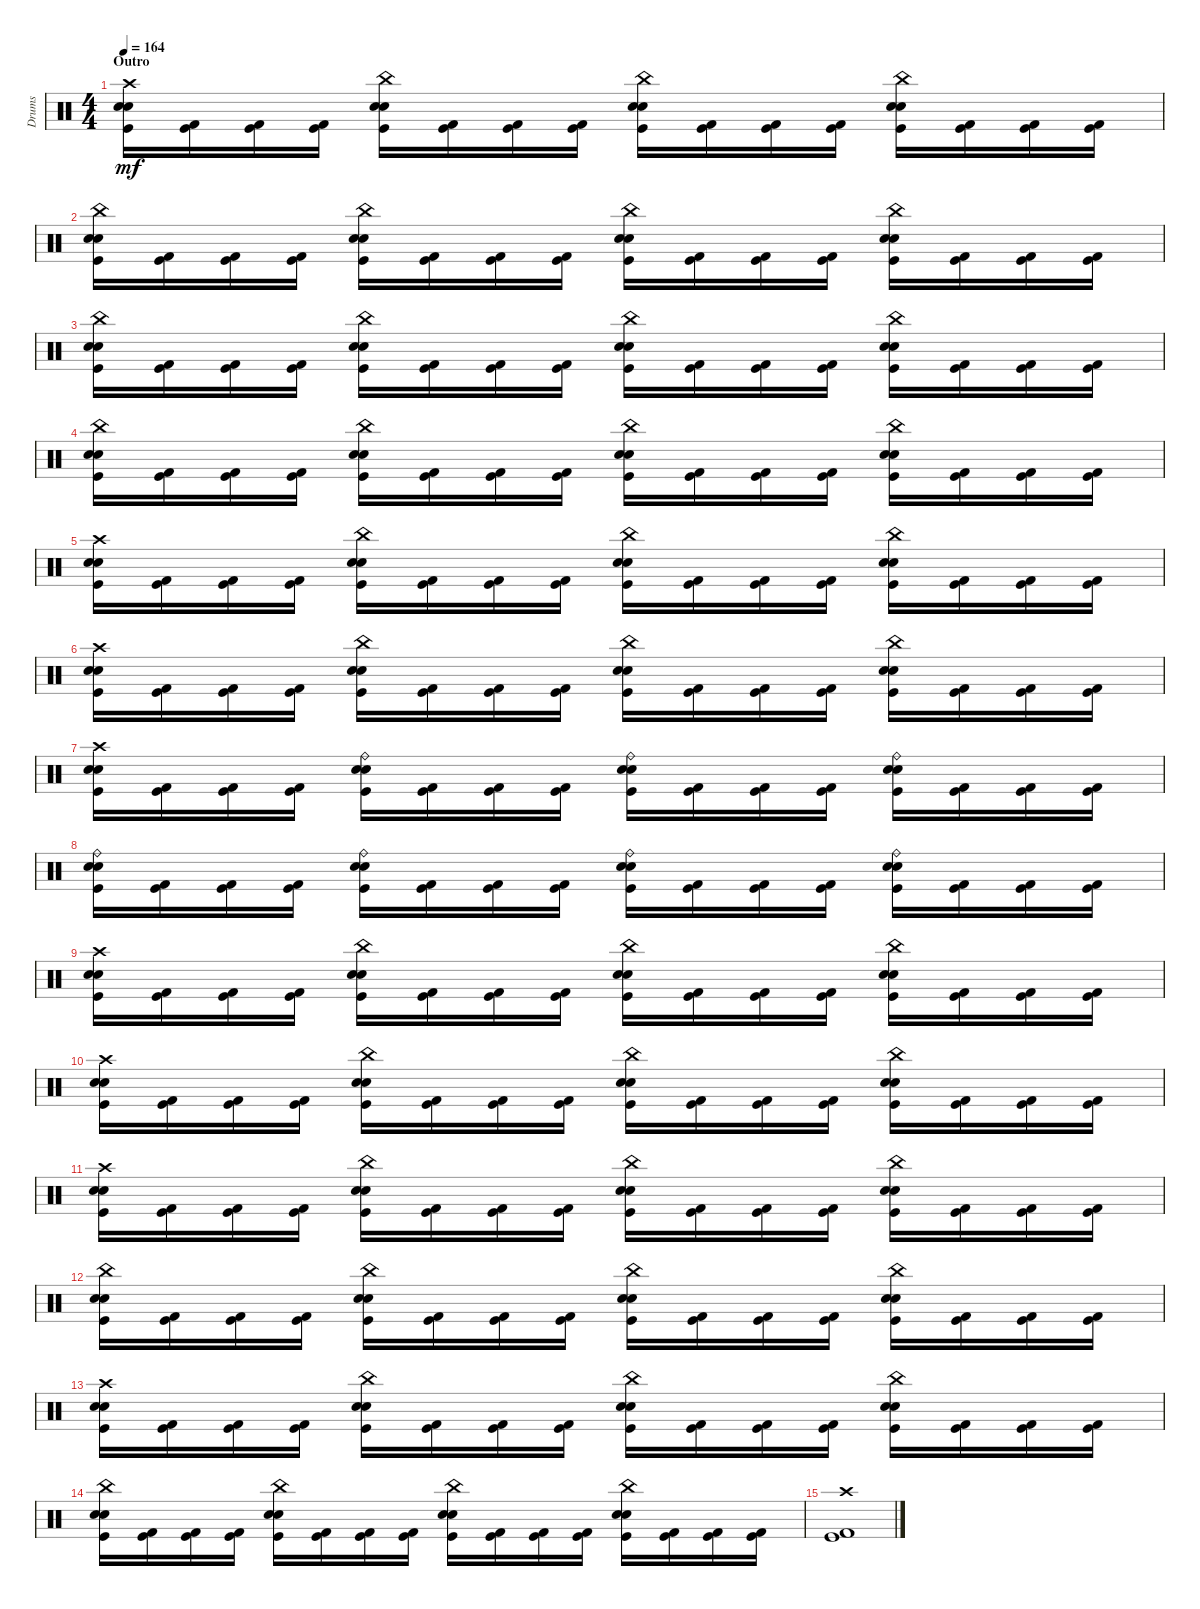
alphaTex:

\track ("Drums" "Drums") {instrument percussion}
\staff {score}
\articulation defaults
\ts (4 4)
\section ("" "Outro")
\tempo 164
\clef neutral
\ks c
("Crash high (hit)" "Snare (hit) 2" "Electric Snare (hit)" "Kick (hit)").16{dy mf} ("Kick (hit) 2" "Kick (hit)").16 ("Kick (hit) 2" "Kick (hit)").16 ("Kick (hit) 2" "Kick (hit)").16 ("China (hit)" "Snare (hit) 2" "Electric Snare (hit)" "Kick (hit)").16 ("Kick (hit) 2" "Kick (hit)").16 ("Kick (hit) 2" "Kick (hit)").16 ("Kick (hit) 2" "Kick (hit)").16 ("China (hit)" "Snare (hit) 2" "Electric Snare (hit)" "Kick (hit)").16 ("Kick (hit) 2" "Kick (hit)").16 ("Kick (hit) 2" "Kick (hit)").16 ("Kick (hit) 2" "Kick (hit)").16 ("China (hit)" "Snare (hit) 2" "Electric Snare (hit)" "Kick (hit)").16 ("Kick (hit) 2" "Kick (hit)").16 ("Kick (hit) 2" "Kick (hit)").16 ("Kick (hit) 2" "Kick (hit)").16 |
("China (hit)" "Snare (hit) 2" "Electric Snare (hit)" "Kick (hit)").16 ("Kick (hit) 2" "Kick (hit)").16 ("Kick (hit) 2" "Kick (hit)").16 ("Kick (hit) 2" "Kick (hit)").16 ("China (hit)" "Snare (hit) 2" "Electric Snare (hit)" "Kick (hit)").16 ("Kick (hit) 2" "Kick (hit)").16 ("Kick (hit) 2" "Kick (hit)").16 ("Kick (hit) 2" "Kick (hit)").16 ("China (hit)" "Snare (hit) 2" "Electric Snare (hit)" "Kick (hit)").16 ("Kick (hit) 2" "Kick (hit)").16 ("Kick (hit) 2" "Kick (hit)").16 ("Kick (hit) 2" "Kick (hit)").16 ("China (hit)" "Snare (hit) 2" "Electric Snare (hit)" "Kick (hit)").16 ("Kick (hit) 2" "Kick (hit)").16 ("Kick (hit) 2" "Kick (hit)").16 ("Kick (hit) 2" "Kick (hit)").16 |
("China (hit)" "Snare (hit) 2" "Electric Snare (hit)" "Kick (hit)").16 ("Kick (hit) 2" "Kick (hit)").16 ("Kick (hit) 2" "Kick (hit)").16 ("Kick (hit) 2" "Kick (hit)").16 ("China (hit)" "Snare (hit) 2" "Electric Snare (hit)" "Kick (hit)").16 ("Kick (hit) 2" "Kick (hit)").16 ("Kick (hit) 2" "Kick (hit)").16 ("Kick (hit) 2" "Kick (hit)").16 ("China (hit)" "Snare (hit) 2" "Electric Snare (hit)" "Kick (hit)").16 ("Kick (hit) 2" "Kick (hit)").16 ("Kick (hit) 2" "Kick (hit)").16 ("Kick (hit) 2" "Kick (hit)").16 ("China (hit)" "Snare (hit) 2" "Electric Snare (hit)" "Kick (hit)").16 ("Kick (hit) 2" "Kick (hit)").16 ("Kick (hit) 2" "Kick (hit)").16 ("Kick (hit) 2" "Kick (hit)").16 |
("China (hit)" "Snare (hit) 2" "Electric Snare (hit)" "Kick (hit)").16 ("Kick (hit) 2" "Kick (hit)").16 ("Kick (hit) 2" "Kick (hit)").16 ("Kick (hit) 2" "Kick (hit)").16 ("China (hit)" "Snare (hit) 2" "Electric Snare (hit)" "Kick (hit)").16 ("Kick (hit) 2" "Kick (hit)").16 ("Kick (hit) 2" "Kick (hit)").16 ("Kick (hit) 2" "Kick (hit)").16 ("China (hit)" "Snare (hit) 2" "Electric Snare (hit)" "Kick (hit)").16 ("Kick (hit) 2" "Kick (hit)").16 ("Kick (hit) 2" "Kick (hit)").16 ("Kick (hit) 2" "Kick (hit)").16 ("China (hit)" "Snare (hit) 2" "Electric Snare (hit)" "Kick (hit)").16 ("Kick (hit) 2" "Kick (hit)").16 ("Kick (hit) 2" "Kick (hit)").16 ("Kick (hit) 2" "Kick (hit)").16 |
("Crash high (hit)" "Snare (hit) 2" "Electric Snare (hit)" "Kick (hit)").16 ("Kick (hit) 2" "Kick (hit)").16 ("Kick (hit) 2" "Kick (hit)").16 ("Kick (hit) 2" "Kick (hit)").16 ("China (hit)" "Snare (hit) 2" "Electric Snare (hit)" "Kick (hit)").16 ("Kick (hit) 2" "Kick (hit)").16 ("Kick (hit) 2" "Kick (hit)").16 ("Kick (hit) 2" "Kick (hit)").16 ("China (hit)" "Snare (hit) 2" "Electric Snare (hit)" "Kick (hit)").16 ("Kick (hit) 2" "Kick (hit)").16 ("Kick (hit) 2" "Kick (hit)").16 ("Kick (hit) 2" "Kick (hit)").16 ("China (hit)" "Snare (hit) 2" "Electric Snare (hit)" "Kick (hit)").16 ("Kick (hit) 2" "Kick (hit)").16 ("Kick (hit) 2" "Kick (hit)").16 ("Kick (hit) 2" "Kick (hit)").16 |
("Crash high (hit)" "Snare (hit) 2" "Electric Snare (hit)" "Kick (hit)").16 ("Kick (hit) 2" "Kick (hit)").16 ("Kick (hit) 2" "Kick (hit)").16 ("Kick (hit) 2" "Kick (hit)").16 ("China (hit)" "Snare (hit) 2" "Electric Snare (hit)" "Kick (hit)").16 ("Kick (hit) 2" "Kick (hit)").16 ("Kick (hit) 2" "Kick (hit)").16 ("Kick (hit) 2" "Kick (hit)").16 ("China (hit)" "Snare (hit) 2" "Electric Snare (hit)" "Kick (hit)").16 ("Kick (hit) 2" "Kick (hit)").16 ("Kick (hit) 2" "Kick (hit)").16 ("Kick (hit) 2" "Kick (hit)").16 ("China (hit)" "Snare (hit) 2" "Electric Snare (hit)" "Kick (hit)").16 ("Kick (hit) 2" "Kick (hit)").16 ("Kick (hit) 2" "Kick (hit)").16 ("Kick (hit) 2" "Kick (hit)").16 |
("Crash high (hit)" "Snare (hit) 2" "Electric Snare (hit)" "Kick (hit)").16 ("Kick (hit) 2" "Kick (hit)").16 ("Kick (hit) 2" "Kick (hit)").16 ("Kick (hit) 2" "Kick (hit)").16 ("Ride (bell)" "Snare (hit) 2" "Electric Snare (hit)" "Kick (hit)").16 ("Kick (hit) 2" "Kick (hit)").16 ("Kick (hit) 2" "Kick (hit)").16 ("Kick (hit) 2" "Kick (hit)").16 ("Ride (bell)" "Snare (hit) 2" "Electric Snare (hit)" "Kick (hit)").16 ("Kick (hit) 2" "Kick (hit)").16 ("Kick (hit) 2" "Kick (hit)").16 ("Kick (hit) 2" "Kick (hit)").16 ("Ride (bell)" "Snare (hit) 2" "Electric Snare (hit)" "Kick (hit)").16 ("Kick (hit) 2" "Kick (hit)").16 ("Kick (hit) 2" "Kick (hit)").16 ("Kick (hit) 2" "Kick (hit)").16 |
("Ride (bell)" "Snare (hit) 2" "Electric Snare (hit)" "Kick (hit)").16 ("Kick (hit) 2" "Kick (hit)").16 ("Kick (hit) 2" "Kick (hit)").16 ("Kick (hit) 2" "Kick (hit)").16 ("Ride (bell)" "Snare (hit) 2" "Electric Snare (hit)" "Kick (hit)").16 ("Kick (hit) 2" "Kick (hit)").16 ("Kick (hit) 2" "Kick (hit)").16 ("Kick (hit) 2" "Kick (hit)").16 ("Ride (bell)" "Snare (hit) 2" "Electric Snare (hit)" "Kick (hit)").16 ("Kick (hit) 2" "Kick (hit)").16 ("Kick (hit) 2" "Kick (hit)").16 ("Kick (hit) 2" "Kick (hit)").16 ("Ride (bell)" "Snare (hit) 2" "Electric Snare (hit)" "Kick (hit)").16 ("Kick (hit) 2" "Kick (hit)").16 ("Kick (hit) 2" "Kick (hit)").16 ("Kick (hit) 2" "Kick (hit)").16 |
("Crash high (hit)" "Snare (hit) 2" "Electric Snare (hit)" "Kick (hit)").16 ("Kick (hit) 2" "Kick (hit)").16 ("Kick (hit) 2" "Kick (hit)").16 ("Kick (hit) 2" "Kick (hit)").16 ("China (hit)" "Snare (hit) 2" "Electric Snare (hit)" "Kick (hit)").16 ("Kick (hit) 2" "Kick (hit)").16 ("Kick (hit) 2" "Kick (hit)").16 ("Kick (hit) 2" "Kick (hit)").16 ("China (hit)" "Snare (hit) 2" "Electric Snare (hit)" "Kick (hit)").16 ("Kick (hit) 2" "Kick (hit)").16 ("Kick (hit) 2" "Kick (hit)").16 ("Kick (hit) 2" "Kick (hit)").16 ("China (hit)" "Snare (hit) 2" "Electric Snare (hit)" "Kick (hit)").16 ("Kick (hit) 2" "Kick (hit)").16 ("Kick (hit) 2" "Kick (hit)").16 ("Kick (hit) 2" "Kick (hit)").16 |
("Crash high (hit)" "Snare (hit) 2" "Electric Snare (hit)" "Kick (hit)").16 ("Kick (hit) 2" "Kick (hit)").16 ("Kick (hit) 2" "Kick (hit)").16 ("Kick (hit) 2" "Kick (hit)").16 ("China (hit)" "Snare (hit) 2" "Electric Snare (hit)" "Kick (hit)").16 ("Kick (hit) 2" "Kick (hit)").16 ("Kick (hit) 2" "Kick (hit)").16 ("Kick (hit) 2" "Kick (hit)").16 ("China (hit)" "Snare (hit) 2" "Electric Snare (hit)" "Kick (hit)").16 ("Kick (hit) 2" "Kick (hit)").16 ("Kick (hit) 2" "Kick (hit)").16 ("Kick (hit) 2" "Kick (hit)").16 ("China (hit)" "Snare (hit) 2" "Electric Snare (hit)" "Kick (hit)").16 ("Kick (hit) 2" "Kick (hit)").16 ("Kick (hit) 2" "Kick (hit)").16 ("Kick (hit) 2" "Kick (hit)").16 |
("Crash high (hit)" "Snare (hit) 2" "Electric Snare (hit)" "Kick (hit)").16 ("Kick (hit) 2" "Kick (hit)").16 ("Kick (hit) 2" "Kick (hit)").16 ("Kick (hit) 2" "Kick (hit)").16 ("China (hit)" "Snare (hit) 2" "Electric Snare (hit)" "Kick (hit)").16 ("Kick (hit) 2" "Kick (hit)").16 ("Kick (hit) 2" "Kick (hit)").16 ("Kick (hit) 2" "Kick (hit)").16 ("China (hit)" "Snare (hit) 2" "Electric Snare (hit)" "Kick (hit)").16 ("Kick (hit) 2" "Kick (hit)").16 ("Kick (hit) 2" "Kick (hit)").16 ("Kick (hit) 2" "Kick (hit)").16 ("China (hit)" "Snare (hit) 2" "Electric Snare (hit)" "Kick (hit)").16 ("Kick (hit) 2" "Kick (hit)").16 ("Kick (hit) 2" "Kick (hit)").16 ("Kick (hit) 2" "Kick (hit)").16 |
("China (hit)" "Snare (hit) 2" "Electric Snare (hit)" "Kick (hit)").16 ("Kick (hit) 2" "Kick (hit)").16 ("Kick (hit) 2" "Kick (hit)").16 ("Kick (hit) 2" "Kick (hit)").16 ("China (hit)" "Snare (hit) 2" "Electric Snare (hit)" "Kick (hit)").16 ("Kick (hit) 2" "Kick (hit)").16 ("Kick (hit) 2" "Kick (hit)").16 ("Kick (hit) 2" "Kick (hit)").16 ("China (hit)" "Snare (hit) 2" "Electric Snare (hit)" "Kick (hit)").16 ("Kick (hit) 2" "Kick (hit)").16 ("Kick (hit) 2" "Kick (hit)").16 ("Kick (hit) 2" "Kick (hit)").16 ("China (hit)" "Snare (hit) 2" "Electric Snare (hit)" "Kick (hit)").16 ("Kick (hit) 2" "Kick (hit)").16 ("Kick (hit) 2" "Kick (hit)").16 ("Kick (hit) 2" "Kick (hit)").16 |
("Crash high (hit)" "Snare (hit) 2" "Electric Snare (hit)" "Kick (hit)").16 ("Kick (hit) 2" "Kick (hit)").16 ("Kick (hit) 2" "Kick (hit)").16 ("Kick (hit) 2" "Kick (hit)").16 ("China (hit)" "Snare (hit) 2" "Electric Snare (hit)" "Kick (hit)").16 ("Kick (hit) 2" "Kick (hit)").16 ("Kick (hit) 2" "Kick (hit)").16 ("Kick (hit) 2" "Kick (hit)").16 ("China (hit)" "Snare (hit) 2" "Electric Snare (hit)" "Kick (hit)").16 ("Kick (hit) 2" "Kick (hit)").16 ("Kick (hit) 2" "Kick (hit)").16 ("Kick (hit) 2" "Kick (hit)").16 ("China (hit)" "Snare (hit) 2" "Electric Snare (hit)" "Kick (hit)").16 ("Kick (hit) 2" "Kick (hit)").16 ("Kick (hit) 2" "Kick (hit)").16 ("Kick (hit) 2" "Kick (hit)").16 |
("China (hit)" "Snare (hit) 2" "Electric Snare (hit)" "Kick (hit)").16 ("Kick (hit) 2" "Kick (hit)").16 ("Kick (hit) 2" "Kick (hit)").16 ("Kick (hit) 2" "Kick (hit)").16 ("China (hit)" "Snare (hit) 2" "Electric Snare (hit)" "Kick (hit)").16 ("Kick (hit) 2" "Kick (hit)").16 ("Kick (hit) 2" "Kick (hit)").16 ("Kick (hit) 2" "Kick (hit)").16 ("China (hit)" "Snare (hit) 2" "Electric Snare (hit)" "Kick (hit)").16 ("Kick (hit) 2" "Kick (hit)").16 ("Kick (hit) 2" "Kick (hit)").16 ("Kick (hit) 2" "Kick (hit)").16 ("China (hit)" "Snare (hit) 2" "Electric Snare (hit)" "Kick (hit)").16 ("Kick (hit) 2" "Kick (hit)").16 ("Kick (hit) 2" "Kick (hit)").16 ("Kick (hit) 2" "Kick (hit)").16 |
("Crash high (hit)" "Kick (hit) 2" "Kick (hit)").1
